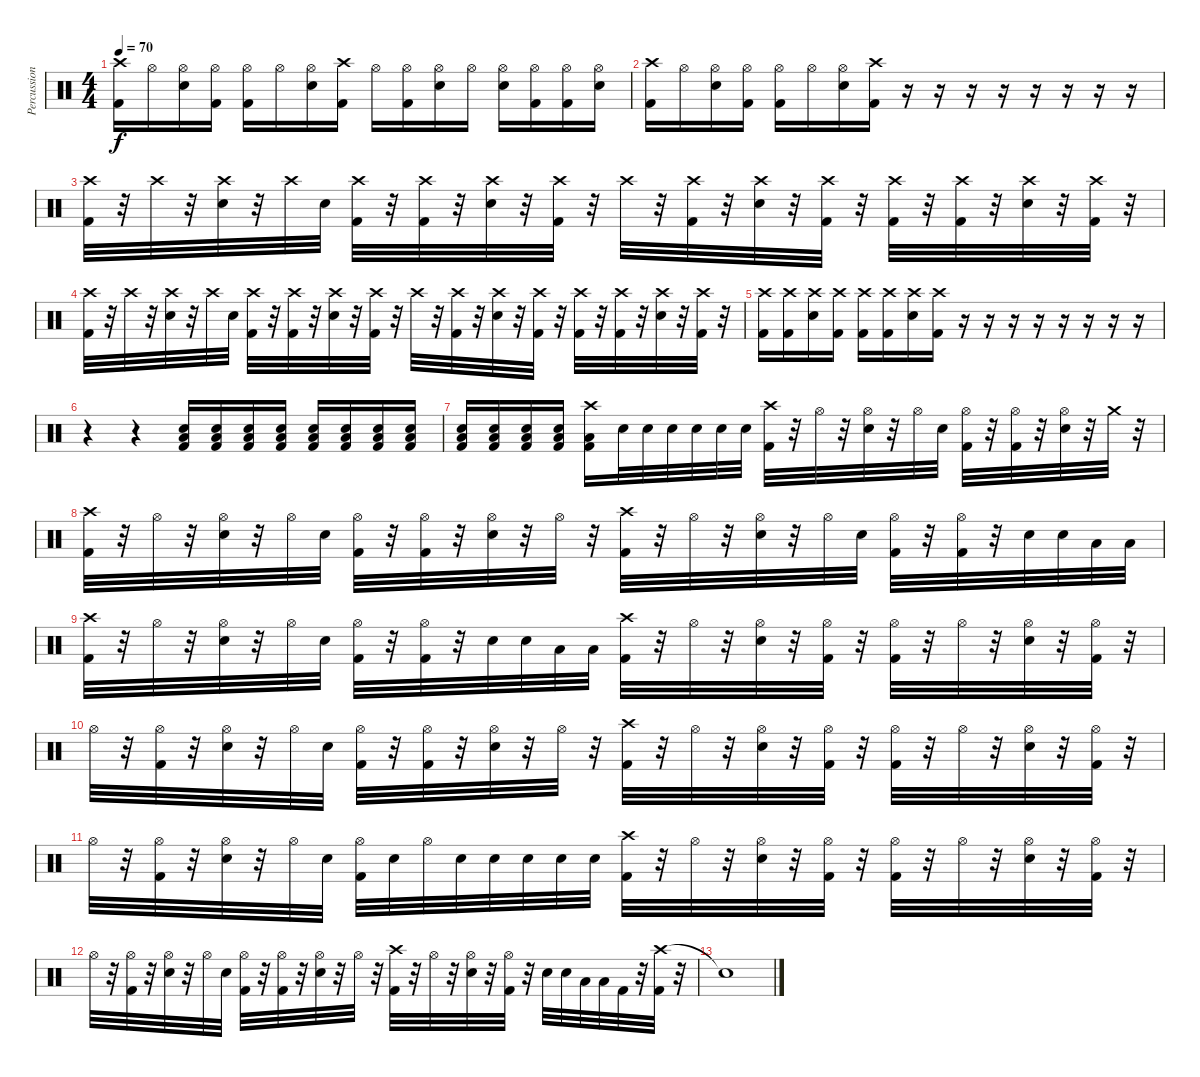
\track ("Percussion" "Percussion") {instrument percussion}
\staff {score}
\articulation defaults
\ts (4 4)
\tempo 70
\clef neutral
\ks c
("Crash high (hit)" "Kick (hit) 2").16{dy f} "Hi-Hat (open)".16 ("Hi-Hat (open)" "Snare (hit) 2").16 ("Hi-Hat (open)" "Kick (hit) 2").16 ("Hi-Hat (open)" "Kick (hit) 2").16 "Hi-Hat (open)".16 ("Hi-Hat (open)" "Snare (hit) 2").16 ("Crash high (hit)" "Kick (hit) 2").16 "Hi-Hat (open)".16 ("Hi-Hat (open)" "Kick (hit) 2").16 ("Hi-Hat (open)" "Snare (hit) 2").16 "Hi-Hat (open)".16 ("Hi-Hat (open)" "Snare (hit) 2").16 ("Hi-Hat (open)" "Kick (hit) 2").16 ("Hi-Hat (open)" "Kick (hit) 2").16 ("Hi-Hat (open)" "Snare (hit) 2").16 |
("Crash high (hit)" "Kick (hit) 2").16 "Hi-Hat (open)".16 ("Hi-Hat (open)" "Snare (hit) 2").16 ("Hi-Hat (open)" "Kick (hit) 2").16 ("Hi-Hat (open)" "Kick (hit) 2").16 "Hi-Hat (open)".16 ("Hi-Hat (open)" "Snare (hit) 2").16 ("Crash high (hit)" "Kick (hit) 2").16 r.16 r.16 r.16 r.16 r.16 r.16 r.16 r.16 |
("Crash high (hit)" "Kick (hit) 2").32 r.32 "Crash high (hit)".32 r.32 ("Crash high (hit)" "Snare (hit) 2").32 r.32 "Crash high (hit)".32 "Snare (hit) 2".32 ("Crash high (hit)" "Kick (hit) 2").32 r.32 ("Crash high (hit)" "Kick (hit) 2").32 r.32 ("Crash high (hit)" "Snare (hit) 2").32 r.32 ("Crash high (hit)" "Kick (hit) 2").32 r.32 "Crash high (hit)".32 r.32 ("Crash high (hit)" "Kick (hit) 2").32 r.32 ("Crash high (hit)" "Snare (hit) 2").32 r.32 ("Crash high (hit)" "Kick (hit) 2").32 r.32 ("Crash high (hit)" "Kick (hit) 2").32 r.32 ("Crash high (hit)" "Kick (hit) 2").32 r.32 ("Crash high (hit)" "Snare (hit) 2").32 r.32 ("Crash high (hit)" "Kick (hit) 2").32 r.32 |
("Crash high (hit)" "Kick (hit) 2").32 r.32 "Crash high (hit)".32 r.32 ("Crash high (hit)" "Snare (hit) 2").32 r.32 "Crash high (hit)".32 "Snare (hit) 2".32 ("Crash high (hit)" "Kick (hit) 2").32 r.32 ("Crash high (hit)" "Kick (hit) 2").32 r.32 ("Crash high (hit)" "Snare (hit) 2").32 r.32 ("Crash high (hit)" "Kick (hit) 2").32 r.32 "Crash high (hit)".32 r.32 ("Crash high (hit)" "Kick (hit) 2").32 r.32 ("Crash high (hit)" "Snare (hit) 2").32 r.32 ("Crash high (hit)" "Kick (hit) 2").32 r.32 ("Crash high (hit)" "Kick (hit) 2").32 r.32 ("Crash high (hit)" "Kick (hit) 2").32 r.32 ("Crash high (hit)" "Snare (hit) 2").32 r.32 ("Crash high (hit)" "Kick (hit) 2").32 r.32 |
("Crash high (hit)" "Kick (hit) 2").16 ("Crash high (hit)" "Kick (hit) 2").16 ("Crash high (hit)" "Snare (hit) 2").16 ("Crash high (hit)" "Kick (hit) 2").16 ("Crash high (hit)" "Kick (hit) 2").16 ("Crash high (hit)" "Kick (hit) 2").16 ("Crash high (hit)" "Snare (hit) 2").16 ("Crash high (hit)" "Kick (hit) 2").16 r.16 r.16 r.16 r.16 r.16 r.16 r.16 r.16 |
r.4 r.4 ("Low Floor Tom (hit)" "Snare (hit) 2" "Kick (hit) 2").16{volume 0} ("Low Floor Tom (hit)" "Snare (hit) 2" "Kick (hit) 2").16 ("Low Floor Tom (hit)" "Snare (hit) 2" "Kick (hit) 2").16{volume 5} ("Low Floor Tom (hit)" "Snare (hit) 2" "Kick (hit) 2").16 ("Low Floor Tom (hit)" "Snare (hit) 2" "Kick (hit) 2").16{volume 11} ("Low Floor Tom (hit)" "Snare (hit) 2" "Kick (hit) 2").16 ("Low Floor Tom (hit)" "Snare (hit) 2" "Kick (hit) 2").16{volume 16} ("Low Floor Tom (hit)" "Snare (hit) 2" "Kick (hit) 2").16 |
("Low Floor Tom (hit)" "Snare (hit) 2" "Kick (hit) 2").16 ("Low Floor Tom (hit)" "Snare (hit) 2" "Kick (hit) 2").16 ("Low Floor Tom (hit)" "Snare (hit) 2" "Kick (hit) 2").16 ("Low Floor Tom (hit)" "Snare (hit) 2" "Kick (hit) 2").16 ("Crash high (hit)" "Low Floor Tom (hit)" "Kick (hit) 2").16 "Snare (hit) 2".32 "Snare (hit) 2".32 "Snare (hit) 2".32 "Snare (hit) 2".32 "Snare (hit) 2".32 "Snare (hit) 2".32 ("Crash high (hit)" "Kick (hit) 2").32 r.32 "Hi-Hat (open)".32 r.32 ("Hi-Hat (open)" "Snare (hit) 2").32 r.32 "Hi-Hat (open)".32 "Snare (hit) 2".32 ("Hi-Hat (open)" "Kick (hit) 2").32 r.32 ("Hi-Hat (open)" "Kick (hit) 2").32 r.32 ("Hi-Hat (open)" "Snare (hit) 2").32 r.32 "Crash medium (hit)".32 r.32 |
("Crash high (hit)" "Kick (hit) 2").32 r.32 "Hi-Hat (open)".32 r.32 ("Hi-Hat (open)" "Snare (hit) 2").32 r.32 "Hi-Hat (open)".32 "Snare (hit) 2".32 ("Hi-Hat (open)" "Kick (hit) 2").32 r.32 ("Hi-Hat (open)" "Kick (hit) 2").32 r.32 ("Hi-Hat (open)" "Snare (hit) 2").32 r.32 "Hi-Hat (open)".32 r.32 ("Crash high (hit)" "Kick (hit) 2").32 r.32 "Hi-Hat (open)".32 r.32 ("Hi-Hat (open)" "Snare (hit) 2").32 r.32 "Hi-Hat (open)".32 "Snare (hit) 2".32 ("Hi-Hat (open)" "Kick (hit) 2").32 r.32 ("Hi-Hat (open)" "Kick (hit) 2").32 r.32 "Snare (hit) 2".32 "Snare (hit) 2".32 "Low Floor Tom (hit)".32 "Low Floor Tom (hit)".32 |
("Crash high (hit)" "Kick (hit) 2").32 r.32 "Hi-Hat (open)".32 r.32 ("Hi-Hat (open)" "Snare (hit) 2").32 r.32 "Hi-Hat (open)".32 "Snare (hit) 2".32 ("Hi-Hat (open)" "Kick (hit) 2").32 r.32 ("Hi-Hat (open)" "Kick (hit) 2").32 r.32 "Snare (hit) 2".32 "Snare (hit) 2".32 "Low Floor Tom (hit)".32 "Low Floor Tom (hit)".32 ("Crash high (hit)" "Kick (hit) 2").32 r.32 "Hi-Hat (open)".32 r.32 ("Hi-Hat (open)" "Snare (hit) 2").32 r.32 ("Hi-Hat (open)" "Kick (hit) 2").32 r.32 ("Hi-Hat (open)" "Kick (hit) 2").32 r.32 "Hi-Hat (open)".32 r.32 ("Hi-Hat (open)" "Snare (hit) 2").32 r.32 ("Hi-Hat (open)" "Kick (hit) 2").32 r.32 |
"Hi-Hat (open)".32 r.32 ("Hi-Hat (open)" "Kick (hit) 2").32 r.32 ("Hi-Hat (open)" "Snare (hit) 2").32 r.32 "Hi-Hat (open)".32 "Snare (hit) 2".32 ("Hi-Hat (open)" "Kick (hit) 2").32 r.32 ("Hi-Hat (open)" "Kick (hit) 2").32 r.32 ("Hi-Hat (open)" "Snare (hit) 2").32 r.32 "Hi-Hat (open)".32 r.32 ("Crash high (hit)" "Kick (hit) 2").32 r.32 "Hi-Hat (open)".32 r.32 ("Hi-Hat (open)" "Snare (hit) 2").32 r.32 ("Hi-Hat (open)" "Kick (hit) 2").32 r.32 ("Hi-Hat (open)" "Kick (hit) 2").32 r.32 "Hi-Hat (open)".32 r.32 ("Hi-Hat (open)" "Snare (hit) 2").32 r.32 ("Hi-Hat (open)" "Kick (hit) 2").32 r.32 |
"Hi-Hat (open)".32 r.32 ("Hi-Hat (open)" "Kick (hit) 2").32 r.32 ("Hi-Hat (open)" "Snare (hit) 2").32 r.32 "Hi-Hat (open)".32 "Snare (hit) 2".32 ("Hi-Hat (open)" "Kick (hit) 2").32 "Snare (hit) 2".32 "Hi-Hat (open)".32 "Snare (hit) 2".32 "Snare (hit) 2".32 "Snare (hit) 2".32 "Snare (hit) 2".32 "Snare (hit) 2".32 ("Crash high (hit)" "Kick (hit) 2").32 r.32 "Hi-Hat (open)".32 r.32 ("Hi-Hat (open)" "Snare (hit) 2").32 r.32 ("Hi-Hat (open)" "Kick (hit) 2").32 r.32 ("Hi-Hat (open)" "Kick (hit) 2").32 r.32 "Hi-Hat (open)".32 r.32 ("Hi-Hat (open)" "Snare (hit) 2").32 r.32 ("Hi-Hat (open)" "Kick (hit) 2").32 r.32 |
"Hi-Hat (open)".32 r.32 ("Hi-Hat (open)" "Kick (hit) 2").32 r.32 ("Hi-Hat (open)" "Snare (hit) 2").32 r.32 "Hi-Hat (open)".32 "Snare (hit) 2".32 ("Hi-Hat (open)" "Kick (hit) 2").32 r.32 ("Hi-Hat (open)" "Kick (hit) 2").32 r.32 ("Hi-Hat (open)" "Snare (hit) 2").32 r.32 "Hi-Hat (open)".32 r.32 ("Crash high (hit)" "Kick (hit) 2").32 r.32 "Hi-Hat (open)".32 r.32 ("Hi-Hat (open)" "Snare (hit) 2").32 r.32 ("Hi-Hat (open)" "Kick (hit) 2").32 r.32 "Snare (hit) 2".32 "Snare (hit) 2".32 "Low Floor Tom (hit)".32 "Low Floor Tom (hit)".32 "Kick (hit) 2".32 r.32 ("Crash high (hit)" "Kick (hit) 2").32 r.32 |
"Snare (hit)"{t}.1
